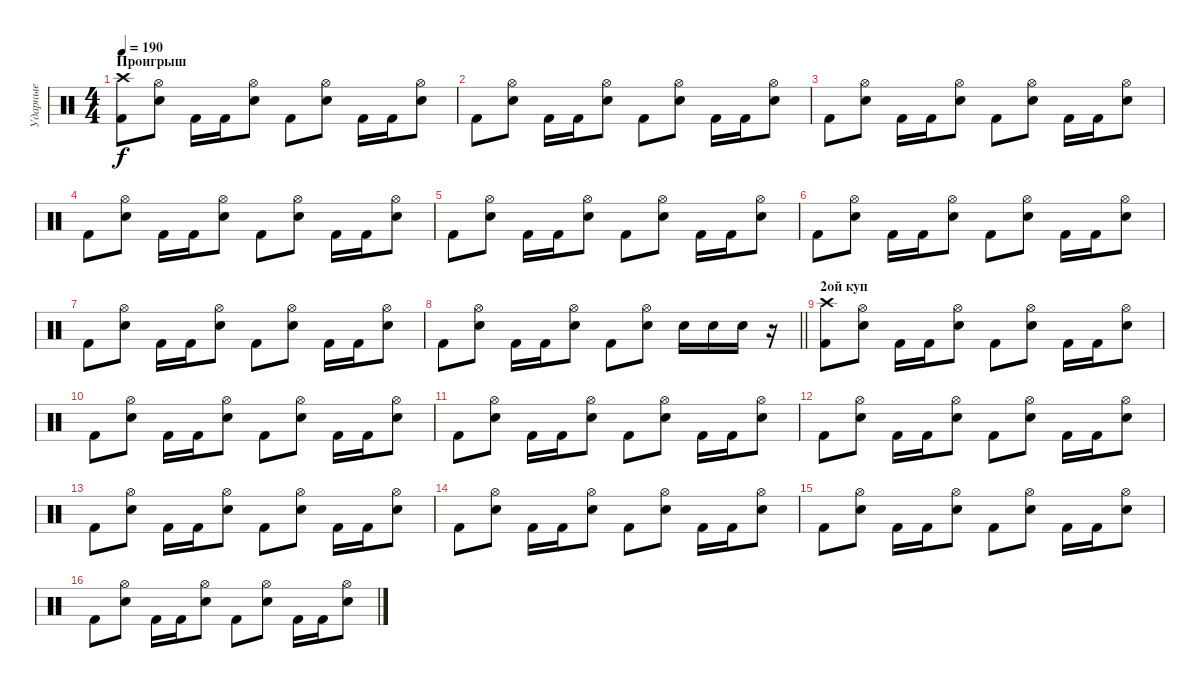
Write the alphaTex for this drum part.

\track ("Ударные" "Ударные") {instrument percussion}
\staff {score}
\articulation defaults
\ts (4 4)
\section ("" "Проигрыш")
\tempo 190
\clef neutral
\ks c
("Crash high (hit)" "Kick (hit) 2").8{dy f} ("Hi-Hat (open)" "Electric Snare (hit)").8 "Kick (hit) 2".16 "Kick (hit) 2".16 ("Hi-Hat (open)" "Electric Snare (hit)").8 "Kick (hit) 2".8 ("Hi-Hat (open)" "Electric Snare (hit)").8 "Kick (hit) 2".16 "Kick (hit) 2".16 ("Hi-Hat (open)" "Electric Snare (hit)").8 |
"Kick (hit) 2".8 ("Hi-Hat (open)" "Electric Snare (hit)").8 "Kick (hit) 2".16 "Kick (hit) 2".16 ("Hi-Hat (open)" "Electric Snare (hit)").8 "Kick (hit) 2".8 ("Hi-Hat (open)" "Electric Snare (hit)").8 "Kick (hit) 2".16 "Kick (hit) 2".16 ("Hi-Hat (open)" "Electric Snare (hit)").8 |
"Kick (hit) 2".8 ("Hi-Hat (open)" "Electric Snare (hit)").8 "Kick (hit) 2".16 "Kick (hit) 2".16 ("Hi-Hat (open)" "Electric Snare (hit)").8 "Kick (hit) 2".8 ("Hi-Hat (open)" "Electric Snare (hit)").8 "Kick (hit) 2".16 "Kick (hit) 2".16 ("Hi-Hat (open)" "Electric Snare (hit)").8 |
"Kick (hit) 2".8 ("Hi-Hat (open)" "Electric Snare (hit)").8 "Kick (hit) 2".16 "Kick (hit) 2".16 ("Hi-Hat (open)" "Electric Snare (hit)").8 "Kick (hit) 2".8 ("Hi-Hat (open)" "Electric Snare (hit)").8 "Kick (hit) 2".16 "Kick (hit) 2".16 ("Hi-Hat (open)" "Electric Snare (hit)").8 |
"Kick (hit) 2".8 ("Hi-Hat (open)" "Electric Snare (hit)").8 "Kick (hit) 2".16 "Kick (hit) 2".16 ("Hi-Hat (open)" "Electric Snare (hit)").8 "Kick (hit) 2".8 ("Hi-Hat (open)" "Electric Snare (hit)").8 "Kick (hit) 2".16 "Kick (hit) 2".16 ("Hi-Hat (open)" "Electric Snare (hit)").8 |
"Kick (hit) 2".8 ("Hi-Hat (open)" "Electric Snare (hit)").8 "Kick (hit) 2".16 "Kick (hit) 2".16 ("Hi-Hat (open)" "Electric Snare (hit)").8 "Kick (hit) 2".8 ("Hi-Hat (open)" "Electric Snare (hit)").8 "Kick (hit) 2".16 "Kick (hit) 2".16 ("Hi-Hat (open)" "Electric Snare (hit)").8 |
"Kick (hit) 2".8 ("Hi-Hat (open)" "Electric Snare (hit)").8 "Kick (hit) 2".16 "Kick (hit) 2".16 ("Hi-Hat (open)" "Electric Snare (hit)").8 "Kick (hit) 2".8 ("Hi-Hat (open)" "Electric Snare (hit)").8 "Kick (hit) 2".16 "Kick (hit) 2".16 ("Hi-Hat (open)" "Electric Snare (hit)").8 |
\barLineRight lightlight "Kick (hit) 2".8
("Hi-Hat (open)" "Electric Snare (hit)").8 "Kick (hit) 2".16 "Kick (hit) 2".16 ("Hi-Hat (open)" "Electric Snare (hit)").8 "Kick (hit) 2".8 ("Hi-Hat (open)" "Electric Snare (hit)").8 "Electric Snare (hit)".16 "Electric Snare (hit)".16 "Electric Snare (hit)".16 r.16 |
\section ("" "2ой куп")
("Crash high (hit)" "Kick (hit) 2").8 ("Hi-Hat (open)" "Electric Snare (hit)").8 "Kick (hit) 2".16 "Kick (hit) 2".16 ("Hi-Hat (open)" "Electric Snare (hit)").8 "Kick (hit) 2".8 ("Hi-Hat (open)" "Electric Snare (hit)").8 "Kick (hit) 2".16 "Kick (hit) 2".16 ("Hi-Hat (open)" "Electric Snare (hit)").8 |
"Kick (hit) 2".8 ("Hi-Hat (open)" "Electric Snare (hit)").8 "Kick (hit) 2".16 "Kick (hit) 2".16 ("Hi-Hat (open)" "Electric Snare (hit)").8 "Kick (hit) 2".8 ("Hi-Hat (open)" "Electric Snare (hit)").8 "Kick (hit) 2".16 "Kick (hit) 2".16 ("Hi-Hat (open)" "Electric Snare (hit)").8 |
"Kick (hit) 2".8 ("Hi-Hat (open)" "Electric Snare (hit)").8 "Kick (hit) 2".16 "Kick (hit) 2".16 ("Hi-Hat (open)" "Electric Snare (hit)").8 "Kick (hit) 2".8 ("Hi-Hat (open)" "Electric Snare (hit)").8 "Kick (hit) 2".16 "Kick (hit) 2".16 ("Hi-Hat (open)" "Electric Snare (hit)").8 |
"Kick (hit) 2".8 ("Hi-Hat (open)" "Electric Snare (hit)").8 "Kick (hit) 2".16 "Kick (hit) 2".16 ("Hi-Hat (open)" "Electric Snare (hit)").8 "Kick (hit) 2".8 ("Hi-Hat (open)" "Electric Snare (hit)").8 "Kick (hit) 2".16 "Kick (hit) 2".16 ("Hi-Hat (open)" "Electric Snare (hit)").8 |
"Kick (hit) 2".8 ("Hi-Hat (open)" "Electric Snare (hit)").8 "Kick (hit) 2".16 "Kick (hit) 2".16 ("Hi-Hat (open)" "Electric Snare (hit)").8 "Kick (hit) 2".8 ("Hi-Hat (open)" "Electric Snare (hit)").8 "Kick (hit) 2".16 "Kick (hit) 2".16 ("Hi-Hat (open)" "Electric Snare (hit)").8 |
"Kick (hit) 2".8 ("Hi-Hat (open)" "Electric Snare (hit)").8 "Kick (hit) 2".16 "Kick (hit) 2".16 ("Hi-Hat (open)" "Electric Snare (hit)").8 "Kick (hit) 2".8 ("Hi-Hat (open)" "Electric Snare (hit)").8 "Kick (hit) 2".16 "Kick (hit) 2".16 ("Hi-Hat (open)" "Electric Snare (hit)").8 |
"Kick (hit) 2".8 ("Hi-Hat (open)" "Electric Snare (hit)").8 "Kick (hit) 2".16 "Kick (hit) 2".16 ("Hi-Hat (open)" "Electric Snare (hit)").8 "Kick (hit) 2".8 ("Hi-Hat (open)" "Electric Snare (hit)").8 "Kick (hit) 2".16 "Kick (hit) 2".16 ("Hi-Hat (open)" "Electric Snare (hit)").8 |
"Kick (hit) 2".8 ("Hi-Hat (open)" "Electric Snare (hit)").8 "Kick (hit) 2".16 "Kick (hit) 2".16 ("Hi-Hat (open)" "Electric Snare (hit)").8 "Kick (hit) 2".8 ("Hi-Hat (open)" "Electric Snare (hit)").8 "Kick (hit) 2".16 "Kick (hit) 2".16 ("Hi-Hat (open)" "Electric Snare (hit)").8
